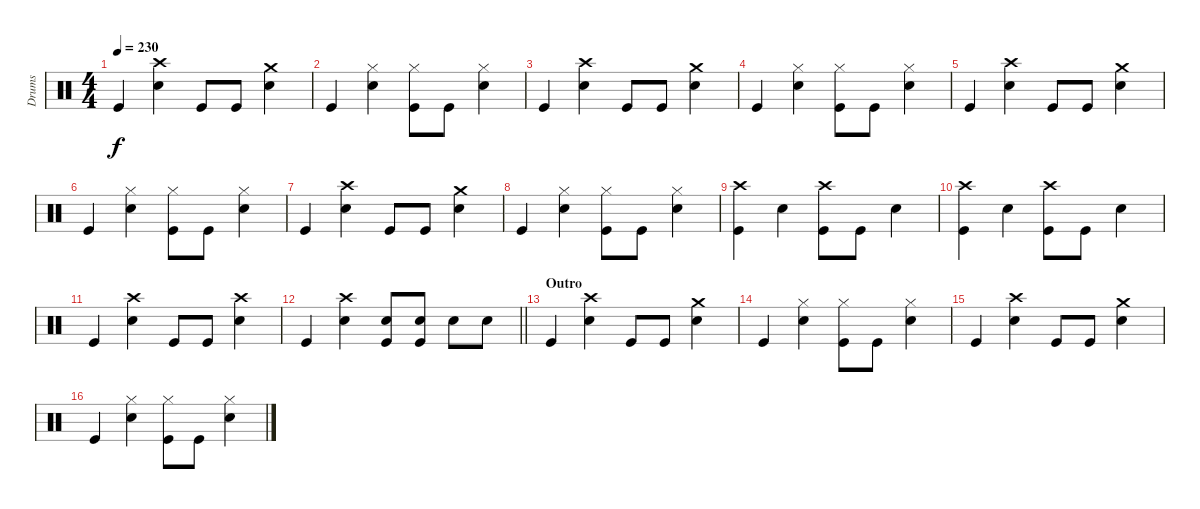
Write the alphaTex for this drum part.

\track ("Drums" "Drums") {instrument percussion}
\staff {score}
\articulation defaults
\ts (4 4)
\tempo 230
\clef neutral
\ks c "Kick (hit)".4{dy f}
("Crash high (hit)" "Snare (hit) 2").4 "Kick (hit)".8 "Kick (hit)".8 ("Crash medium (hit)" "Snare (hit) 2").4 |
"Kick (hit)".4 ("Hi-Hat (closed)" "Snare (hit) 2").4 ("Hi-Hat (closed)" "Kick (hit)").8 "Kick (hit)".8 ("Hi-Hat (closed)" "Snare (hit) 2").4 |
"Kick (hit)".4 ("Crash high (hit)" "Snare (hit) 2").4 "Kick (hit)".8 "Kick (hit)".8 ("Crash medium (hit)" "Snare (hit) 2").4 |
"Kick (hit)".4 ("Hi-Hat (closed)" "Snare (hit) 2").4 ("Hi-Hat (closed)" "Kick (hit)").8 "Kick (hit)".8 ("Hi-Hat (closed)" "Snare (hit) 2").4 |
"Kick (hit)".4 ("Crash high (hit)" "Snare (hit) 2").4 "Kick (hit)".8 "Kick (hit)".8 ("Crash medium (hit)" "Snare (hit) 2").4 |
"Kick (hit)".4 ("Hi-Hat (closed)" "Snare (hit) 2").4 ("Hi-Hat (closed)" "Kick (hit)").8 "Kick (hit)".8 ("Hi-Hat (closed)" "Snare (hit) 2").4 |
"Kick (hit)".4 ("Crash high (hit)" "Snare (hit) 2").4 "Kick (hit)".8 "Kick (hit)".8 ("Crash medium (hit)" "Snare (hit) 2").4 |
"Kick (hit)".4 ("Hi-Hat (closed)" "Snare (hit) 2").4 ("Hi-Hat (closed)" "Kick (hit)").8 "Kick (hit)".8 ("Hi-Hat (closed)" "Snare (hit) 2").4 |
("Crash high (hit)" "Kick (hit)").4 "Snare (hit) 2".4 ("Crash high (hit)" "Kick (hit)").8 "Kick (hit)".8 "Snare (hit) 2".4 |
("Crash high (hit)" "Kick (hit)").4 "Snare (hit) 2".4 ("Crash high (hit)" "Kick (hit)").8 "Kick (hit)".8 "Snare (hit) 2".4 |
"Kick (hit)".4 ("Crash high (hit)" "Snare (hit) 2").4 "Kick (hit)".8 "Kick (hit)".8 ("Crash high (hit)" "Snare (hit) 2").4 |
\barLineRight lightlight "Kick (hit)".4
("Crash high (hit)" "Snare (hit) 2").4 ("Snare (hit) 2" "Kick (hit)").8 ("Snare (hit) 2" "Kick (hit)").8 "Snare (hit) 2".8 "Snare (hit) 2".8 |
\section ("" "Outro")
"Kick (hit)".4 ("Crash high (hit)" "Snare (hit) 2").4 "Kick (hit)".8 "Kick (hit)".8 ("Crash medium (hit)" "Snare (hit) 2").4 |
"Kick (hit)".4 ("Hi-Hat (closed)" "Snare (hit) 2").4 ("Hi-Hat (closed)" "Kick (hit)").8 "Kick (hit)".8 ("Hi-Hat (closed)" "Snare (hit) 2").4 |
"Kick (hit)".4 ("Crash high (hit)" "Snare (hit) 2").4 "Kick (hit)".8 "Kick (hit)".8 ("Crash medium (hit)" "Snare (hit) 2").4 |
"Kick (hit)".4 ("Hi-Hat (closed)" "Snare (hit) 2").4 ("Hi-Hat (closed)" "Kick (hit)").8 "Kick (hit)".8 ("Hi-Hat (closed)" "Snare (hit) 2").4
